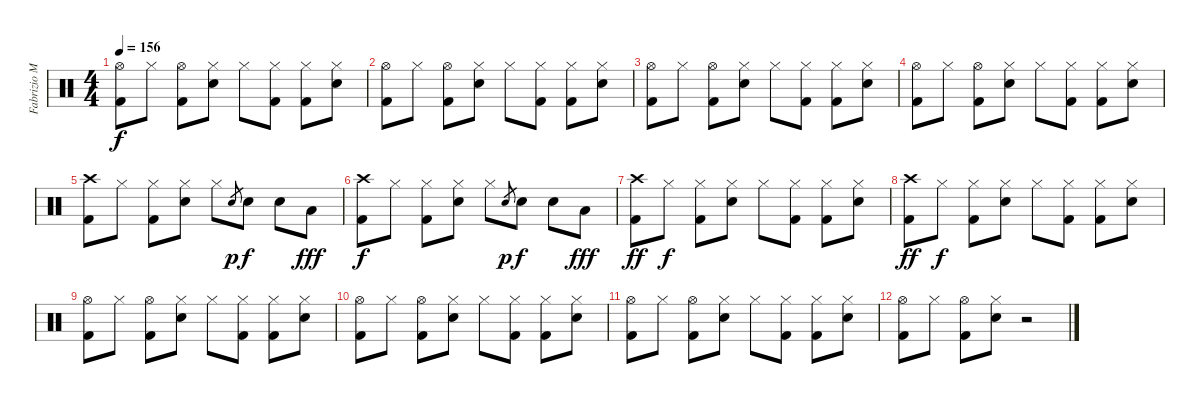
\track ("Fabrizio Moretti" "Fabrizio M") {instrument percussion}
\staff {score}
\articulation defaults
\ts (4 4)
\tempo 156
\clef neutral
\ks c
("Hi-Hat (open)" "Kick (hit) 2").8{dy f} "Hi-Hat (closed)".8 ("Hi-Hat (open)" "Kick (hit) 2").8 ("Hi-Hat (closed)" "Snare (hit) 2").8 "Hi-Hat (closed)".8 ("Hi-Hat (closed)" "Kick (hit) 2").8 ("Hi-Hat (closed)" "Kick (hit) 2").8 ("Hi-Hat (closed)" "Snare (hit) 2").8 |
("Hi-Hat (open)" "Kick (hit) 2").8 "Hi-Hat (closed)".8 ("Hi-Hat (open)" "Kick (hit) 2").8 ("Hi-Hat (closed)" "Snare (hit) 2").8 "Hi-Hat (closed)".8 ("Hi-Hat (closed)" "Kick (hit) 2").8 ("Hi-Hat (closed)" "Kick (hit) 2").8 ("Hi-Hat (closed)" "Snare (hit) 2").8 |
("Hi-Hat (open)" "Kick (hit) 2").8 "Hi-Hat (closed)".8 ("Hi-Hat (open)" "Kick (hit) 2").8 ("Hi-Hat (closed)" "Snare (hit) 2").8 "Hi-Hat (closed)".8 ("Hi-Hat (closed)" "Kick (hit) 2").8 ("Hi-Hat (closed)" "Kick (hit) 2").8 ("Hi-Hat (closed)" "Snare (hit) 2").8 |
("Hi-Hat (open)" "Kick (hit) 2").8 "Hi-Hat (closed)".8 ("Hi-Hat (open)" "Kick (hit) 2").8 ("Hi-Hat (closed)" "Snare (hit) 2").8 "Hi-Hat (closed)".8 ("Hi-Hat (closed)" "Kick (hit) 2").8 ("Hi-Hat (closed)" "Kick (hit) 2").8 ("Hi-Hat (closed)" "Snare (hit) 2").8 |
("Crash high (hit)" "Kick (hit) 2").8 "Hi-Hat (closed)".8 ("Hi-Hat (closed)" "Kick (hit) 2").8 ("Hi-Hat (closed)" "Snare (hit) 2").8 "Hi-Hat (closed)".8 "Snare (hit) 2".8{gr dy p} "Snare (hit) 2".8{dy f} "Snare (hit) 2".8 "Low Tom (hit)".8{dy fff} |
("Crash high (hit)" "Kick (hit) 2").8{dy f} "Hi-Hat (closed)".8 ("Hi-Hat (closed)" "Kick (hit) 2").8 ("Hi-Hat (closed)" "Snare (hit) 2").8 "Hi-Hat (closed)".8 "Snare (hit) 2".8{gr dy p} "Snare (hit) 2".8{dy f} "Snare (hit) 2".8 "Low Tom (hit)".8{dy fff} |
("Crash high (hit)" "Kick (hit) 2").8{dy ff} "Hi-Hat (closed)".8{dy f} ("Hi-Hat (closed)" "Kick (hit) 2").8 ("Hi-Hat (closed)" "Snare (hit) 2").8 "Hi-Hat (closed)".8 ("Hi-Hat (closed)" "Kick (hit) 2").8 ("Hi-Hat (closed)" "Kick (hit) 2").8 ("Hi-Hat (closed)" "Snare (hit) 2").8 |
("Crash high (hit)" "Kick (hit) 2").8{dy ff} "Hi-Hat (closed)".8{dy f} ("Hi-Hat (closed)" "Kick (hit) 2").8 ("Hi-Hat (closed)" "Snare (hit) 2").8 "Hi-Hat (closed)".8 ("Hi-Hat (closed)" "Kick (hit) 2").8 ("Hi-Hat (closed)" "Kick (hit) 2").8 ("Hi-Hat (closed)" "Snare (hit) 2").8 |
("Hi-Hat (open)" "Kick (hit) 2").8 "Hi-Hat (closed)".8 ("Hi-Hat (open)" "Kick (hit) 2").8 ("Hi-Hat (closed)" "Snare (hit) 2").8 "Hi-Hat (closed)".8 ("Hi-Hat (closed)" "Kick (hit) 2").8 ("Hi-Hat (closed)" "Kick (hit) 2").8 ("Hi-Hat (closed)" "Snare (hit) 2").8 |
("Hi-Hat (open)" "Kick (hit) 2").8 "Hi-Hat (closed)".8 ("Hi-Hat (open)" "Kick (hit) 2").8 ("Hi-Hat (closed)" "Snare (hit) 2").8 "Hi-Hat (closed)".8 ("Hi-Hat (closed)" "Kick (hit) 2").8 ("Hi-Hat (closed)" "Kick (hit) 2").8 ("Hi-Hat (closed)" "Snare (hit) 2").8 |
("Hi-Hat (open)" "Kick (hit) 2").8 "Hi-Hat (closed)".8 ("Hi-Hat (open)" "Kick (hit) 2").8 ("Hi-Hat (closed)" "Snare (hit) 2").8 "Hi-Hat (closed)".8 ("Hi-Hat (closed)" "Kick (hit) 2").8 ("Hi-Hat (closed)" "Kick (hit) 2").8 ("Hi-Hat (closed)" "Snare (hit) 2").8 |
("Hi-Hat (open)" "Kick (hit) 2").8 "Hi-Hat (closed)".8 ("Hi-Hat (open)" "Kick (hit) 2").8 ("Hi-Hat (closed)" "Snare (hit) 2").8 r.2
